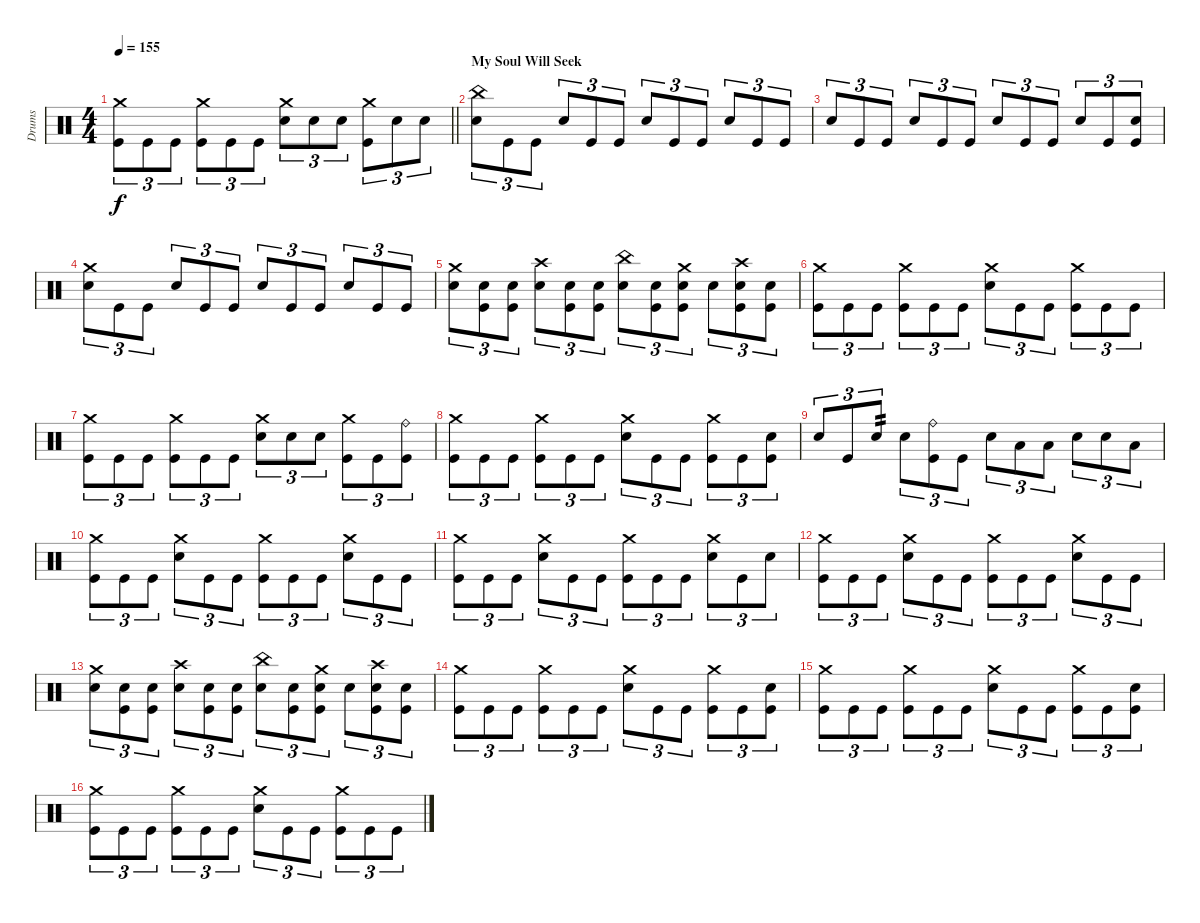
\track ("Drums" "Drums") {instrument percussion}
\staff {score}
\articulation defaults
\ts (4 4)
\tempo 155
\clef neutral
\barLineRight lightlight
\ks c
("Crash medium (hit)" "Kick (hit)").8{tu (3 2) dy f} "Kick (hit)".8{tu (3 2)} "Kick (hit)".8{tu (3 2)} ("Crash medium (hit)" "Kick (hit)").8{tu (3 2)} "Kick (hit)".8{tu (3 2)} "Kick (hit)".8{tu (3 2)} ("Crash medium (hit)" "Electric Snare (hit)").8{tu (3 2)} "Electric Snare (hit)".8{tu (3 2)} "Electric Snare (hit)".8{tu (3 2)} ("Crash medium (hit)" "Kick (hit)").8{tu (3 2)} "Electric Snare (hit)".8{tu (3 2)} "Electric Snare (hit)".8{tu (3 2)} |
\section ("" "My Soul Will Seek")
("China (hit)" "Electric Snare (hit)").8{tu (3 2)} "Kick (hit)".8{tu (3 2)} "Kick (hit)".8{tu (3 2)} "Electric Snare (hit)".8{tu (3 2)} "Kick (hit)".8{tu (3 2)} "Kick (hit)".8{tu (3 2)} "Electric Snare (hit)".8{tu (3 2)} "Kick (hit)".8{tu (3 2)} "Kick (hit)".8{tu (3 2)} "Electric Snare (hit)".8{tu (3 2)} "Kick (hit)".8{tu (3 2)} "Kick (hit)".8{tu (3 2)} |
"Electric Snare (hit)".8{tu (3 2)} "Kick (hit)".8{tu (3 2)} "Kick (hit)".8{tu (3 2)} "Electric Snare (hit)".8{tu (3 2)} "Kick (hit)".8{tu (3 2)} "Kick (hit)".8{tu (3 2)} "Electric Snare (hit)".8{tu (3 2)} "Kick (hit)".8{tu (3 2)} "Kick (hit)".8{tu (3 2)} "Electric Snare (hit)".8{tu (3 2)} "Kick (hit)".8{tu (3 2)} ("Electric Snare (hit)" "Kick (hit)").8{tu (3 2)} |
("Crash medium (hit)" "Electric Snare (hit)").8{tu (3 2)} "Kick (hit)".8{tu (3 2)} "Kick (hit)".8{tu (3 2)} "Electric Snare (hit)".8{tu (3 2)} "Kick (hit)".8{tu (3 2)} "Kick (hit)".8{tu (3 2)} "Electric Snare (hit)".8{tu (3 2)} "Kick (hit)".8{tu (3 2)} "Kick (hit)".8{tu (3 2)} "Electric Snare (hit)".8{tu (3 2)} "Kick (hit)".8{tu (3 2)} "Kick (hit)".8{tu (3 2)} |
("Crash medium (hit)" "Electric Snare (hit)").8{tu (3 2)} ("Electric Snare (hit)" "Kick (hit)").8{tu (3 2)} ("Electric Snare (hit)" "Kick (hit)").8{tu (3 2)} ("Crash high (hit)" "Electric Snare (hit)").8{tu (3 2)} ("Electric Snare (hit)" "Kick (hit)").8{tu (3 2)} ("Electric Snare (hit)" "Kick (hit)").8{tu (3 2)} ("China (hit)" "Electric Snare (hit)").8{tu (3 2)} ("Electric Snare (hit)" "Kick (hit)").8{tu (3 2)} ("Crash medium (hit)" "Electric Snare (hit)" "Kick (hit)").8{tu (3 2)} "Electric Snare (hit)".8{tu (3 2)} ("Crash high (hit)" "Electric Snare (hit)" "Kick (hit)").8{tu (3 2)} ("Electric Snare (hit)" "Kick (hit)").8{tu (3 2)} |
("Crash medium (hit)" "Kick (hit)").8{tu (3 2)} "Kick (hit)".8{tu (3 2)} "Kick (hit)".8{tu (3 2)} ("Crash medium (hit)" "Kick (hit)").8{tu (3 2)} "Kick (hit)".8{tu (3 2)} "Kick (hit)".8{tu (3 2)} ("Crash medium (hit)" "Electric Snare (hit)").8{tu (3 2)} "Kick (hit)".8{tu (3 2)} "Kick (hit)".8{tu (3 2)} ("Crash medium (hit)" "Kick (hit)").8{tu (3 2)} "Kick (hit)".8{tu (3 2)} "Kick (hit)".8{tu (3 2)} |
("Crash medium (hit)" "Kick (hit)").8{tu (3 2)} "Kick (hit)".8{tu (3 2)} "Kick (hit)".8{tu (3 2)} ("Crash medium (hit)" "Kick (hit)").8{tu (3 2)} "Kick (hit)".8{tu (3 2)} "Kick (hit)".8{tu (3 2)} ("Crash medium (hit)" "Electric Snare (hit)").8{tu (3 2)} "Electric Snare (hit)".8{tu (3 2)} "Electric Snare (hit)".8{tu (3 2)} ("Crash medium (hit)" "Kick (hit)").8{tu (3 2)} "Kick (hit)".8{tu (3 2)} ("Ride (bell)" "Kick (hit)").8{tu (3 2)} |
("Crash medium (hit)" "Kick (hit)").8{tu (3 2)} "Kick (hit)".8{tu (3 2)} "Kick (hit)".8{tu (3 2)} ("Crash medium (hit)" "Kick (hit)").8{tu (3 2)} "Kick (hit)".8{tu (3 2)} "Kick (hit)".8{tu (3 2)} ("Crash medium (hit)" "Electric Snare (hit)").8{tu (3 2)} "Kick (hit)".8{tu (3 2)} "Kick (hit)".8{tu (3 2)} ("Crash medium (hit)" "Kick (hit)").8{tu (3 2)} "Kick (hit)".8{tu (3 2)} ("Electric Snare (hit)" "Kick (hit)").8{tu (3 2)} |
"Electric Snare (hit)".8{tu (3 2)} "Kick (hit)".8{tu (3 2)} "Electric Snare (hit)".8{tu (3 2) tp 2} "Electric Snare (hit)".8{tu (3 2)} ("Ride (bell)" "Kick (hit)").8{tu (3 2)} "Kick (hit)".8{tu (3 2)} "Electric Snare (hit)".8{tu (3 2)} "Low Tom (hit)".8{tu (3 2)} "Low Tom (hit)".8{tu (3 2)} "Electric Snare (hit)".8{tu (3 2)} "Electric Snare (hit)".8{tu (3 2)} "Low Tom (hit)".8{tu (3 2)} |
("Crash medium (hit)" "Kick (hit)").8{tu (3 2)} "Kick (hit)".8{tu (3 2)} "Kick (hit)".8{tu (3 2)} ("Crash medium (hit)" "Electric Snare (hit)").8{tu (3 2)} "Kick (hit)".8{tu (3 2)} "Kick (hit)".8{tu (3 2)} ("Crash medium (hit)" "Kick (hit)").8{tu (3 2)} "Kick (hit)".8{tu (3 2)} "Kick (hit)".8{tu (3 2)} ("Crash medium (hit)" "Electric Snare (hit)").8{tu (3 2)} "Kick (hit)".8{tu (3 2)} "Kick (hit)".8{tu (3 2)} |
("Crash medium (hit)" "Kick (hit)").8{tu (3 2)} "Kick (hit)".8{tu (3 2)} "Kick (hit)".8{tu (3 2)} ("Crash medium (hit)" "Electric Snare (hit)").8{tu (3 2)} "Kick (hit)".8{tu (3 2)} "Kick (hit)".8{tu (3 2)} ("Crash medium (hit)" "Kick (hit)").8{tu (3 2)} "Kick (hit)".8{tu (3 2)} "Kick (hit)".8{tu (3 2)} ("Crash medium (hit)" "Electric Snare (hit)").8{tu (3 2)} "Kick (hit)".8{tu (3 2)} "Electric Snare (hit)".8{tu (3 2)} |
("Crash medium (hit)" "Kick (hit)").8{tu (3 2)} "Kick (hit)".8{tu (3 2)} "Kick (hit)".8{tu (3 2)} ("Crash medium (hit)" "Electric Snare (hit)").8{tu (3 2)} "Kick (hit)".8{tu (3 2)} "Kick (hit)".8{tu (3 2)} ("Crash medium (hit)" "Kick (hit)").8{tu (3 2)} "Kick (hit)".8{tu (3 2)} "Kick (hit)".8{tu (3 2)} ("Crash medium (hit)" "Electric Snare (hit)").8{tu (3 2)} "Kick (hit)".8{tu (3 2)} "Kick (hit)".8{tu (3 2)} |
("Crash medium (hit)" "Electric Snare (hit)").8{tu (3 2)} ("Electric Snare (hit)" "Kick (hit)").8{tu (3 2)} ("Electric Snare (hit)" "Kick (hit)").8{tu (3 2)} ("Crash high (hit)" "Electric Snare (hit)").8{tu (3 2)} ("Electric Snare (hit)" "Kick (hit)").8{tu (3 2)} ("Electric Snare (hit)" "Kick (hit)").8{tu (3 2)} ("China (hit)" "Electric Snare (hit)").8{tu (3 2)} ("Electric Snare (hit)" "Kick (hit)").8{tu (3 2)} ("Crash medium (hit)" "Electric Snare (hit)" "Kick (hit)").8{tu (3 2)} "Electric Snare (hit)".8{tu (3 2)} ("Crash high (hit)" "Electric Snare (hit)" "Kick (hit)").8{tu (3 2)} ("Electric Snare (hit)" "Kick (hit)").8{tu (3 2)} |
("Crash medium (hit)" "Kick (hit)").8{tu (3 2)} "Kick (hit)".8{tu (3 2)} "Kick (hit)".8{tu (3 2)} ("Crash medium (hit)" "Kick (hit)").8{tu (3 2)} "Kick (hit)".8{tu (3 2)} "Kick (hit)".8{tu (3 2)} ("Crash medium (hit)" "Electric Snare (hit)").8{tu (3 2)} "Kick (hit)".8{tu (3 2)} "Kick (hit)".8{tu (3 2)} ("Crash medium (hit)" "Kick (hit)").8{tu (3 2)} "Kick (hit)".8{tu (3 2)} ("Electric Snare (hit)" "Kick (hit)").8{tu (3 2)} |
("Crash medium (hit)" "Kick (hit)").8{tu (3 2)} "Kick (hit)".8{tu (3 2)} "Kick (hit)".8{tu (3 2)} ("Crash medium (hit)" "Kick (hit)").8{tu (3 2)} "Kick (hit)".8{tu (3 2)} "Kick (hit)".8{tu (3 2)} ("Crash medium (hit)" "Electric Snare (hit)").8{tu (3 2)} "Kick (hit)".8{tu (3 2)} "Kick (hit)".8{tu (3 2)} ("Crash medium (hit)" "Kick (hit)").8{tu (3 2)} "Kick (hit)".8{tu (3 2)} ("Electric Snare (hit)" "Kick (hit)").8{tu (3 2)} |
("Crash medium (hit)" "Kick (hit)").8{tu (3 2)} "Kick (hit)".8{tu (3 2)} "Kick (hit)".8{tu (3 2)} ("Crash medium (hit)" "Kick (hit)").8{tu (3 2)} "Kick (hit)".8{tu (3 2)} "Kick (hit)".8{tu (3 2)} ("Crash medium (hit)" "Electric Snare (hit)").8{tu (3 2)} "Kick (hit)".8{tu (3 2)} "Kick (hit)".8{tu (3 2)} ("Crash medium (hit)" "Kick (hit)").8{tu (3 2)} "Kick (hit)".8{tu (3 2)} "Kick (hit)".8{tu (3 2)}
